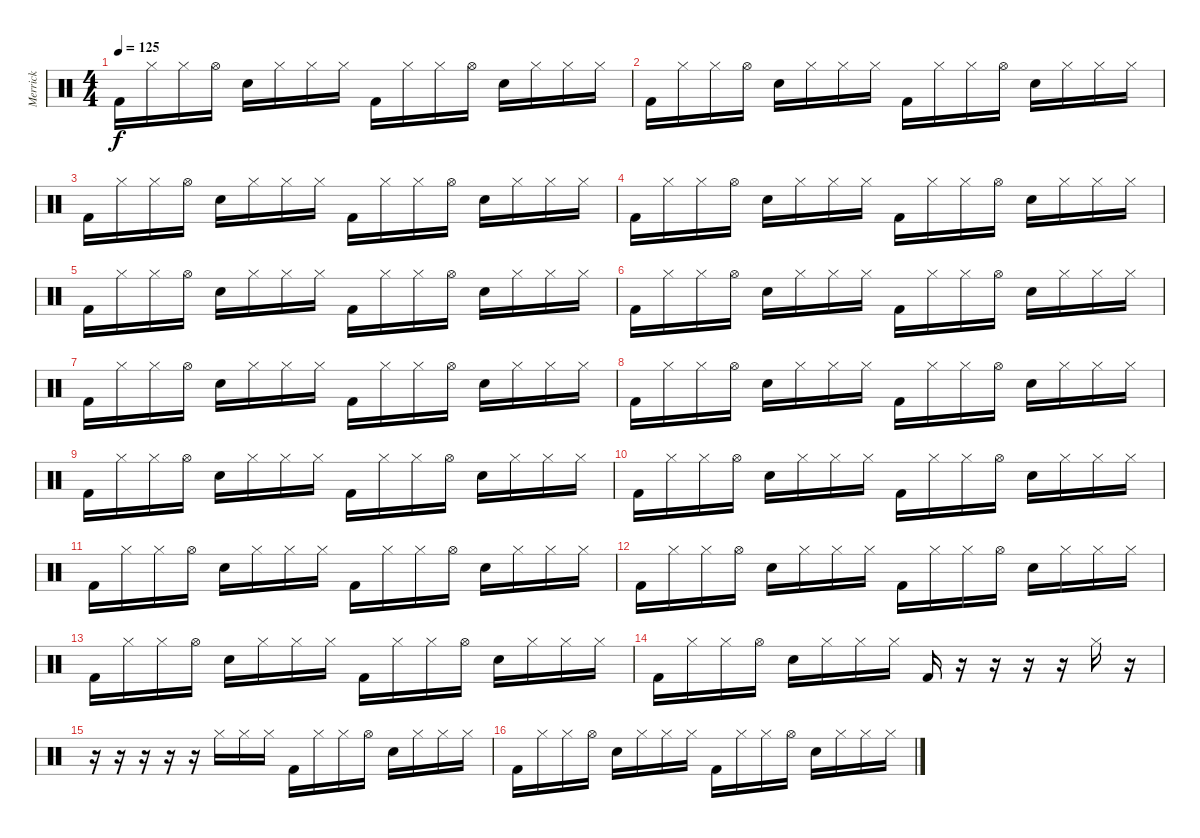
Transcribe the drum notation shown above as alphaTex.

\track ("Merrick " "Merrick ") {instrument percussion}
\staff {score}
\articulation defaults
\ts (4 4)
\tempo 125
\clef neutral
\ks c "Kick (hit) 2".16{dy f} "Hi-Hat (closed)".16 "Hi-Hat (closed)".16 "Hi-Hat (open)".16 "Electric Snare (hit)".16 "Hi-Hat (closed)".16 "Hi-Hat (closed)".16 "Hi-Hat (closed)".16 "Kick (hit) 2".16 "Hi-Hat (closed)".16 "Hi-Hat (closed)".16 "Hi-Hat (open)".16 "Electric Snare (hit)".16 "Hi-Hat (closed)".16 "Hi-Hat (closed)".16 "Hi-Hat (closed)".16
|
"Kick (hit) 2".16 "Hi-Hat (closed)".16 "Hi-Hat (closed)".16 "Hi-Hat (open)".16 "Electric Snare (hit)".16 "Hi-Hat (closed)".16 "Hi-Hat (closed)".16 "Hi-Hat (closed)".16 "Kick (hit) 2".16 "Hi-Hat (closed)".16 "Hi-Hat (closed)".16 "Hi-Hat (open)".16 "Electric Snare (hit)".16 "Hi-Hat (closed)".16 "Hi-Hat (closed)".16 "Hi-Hat (closed)".16 |
"Kick (hit) 2".16 "Hi-Hat (closed)".16 "Hi-Hat (closed)".16 "Hi-Hat (open)".16 "Electric Snare (hit)".16 "Hi-Hat (closed)".16 "Hi-Hat (closed)".16 "Hi-Hat (closed)".16 "Kick (hit) 2".16 "Hi-Hat (closed)".16 "Hi-Hat (closed)".16 "Hi-Hat (open)".16 "Electric Snare (hit)".16 "Hi-Hat (closed)".16 "Hi-Hat (closed)".16 "Hi-Hat (closed)".16 |
"Kick (hit) 2".16 "Hi-Hat (closed)".16 "Hi-Hat (closed)".16 "Hi-Hat (open)".16 "Electric Snare (hit)".16 "Hi-Hat (closed)".16 "Hi-Hat (closed)".16 "Hi-Hat (closed)".16 "Kick (hit) 2".16 "Hi-Hat (closed)".16 "Hi-Hat (closed)".16 "Hi-Hat (open)".16 "Electric Snare (hit)".16 "Hi-Hat (closed)".16 "Hi-Hat (closed)".16 "Hi-Hat (closed)".16 |
"Kick (hit) 2".16 "Hi-Hat (closed)".16 "Hi-Hat (closed)".16 "Hi-Hat (open)".16 "Electric Snare (hit)".16 "Hi-Hat (closed)".16 "Hi-Hat (closed)".16 "Hi-Hat (closed)".16 "Kick (hit) 2".16 "Hi-Hat (closed)".16 "Hi-Hat (closed)".16 "Hi-Hat (open)".16 "Electric Snare (hit)".16 "Hi-Hat (closed)".16 "Hi-Hat (closed)".16 "Hi-Hat (closed)".16 |
"Kick (hit) 2".16 "Hi-Hat (closed)".16 "Hi-Hat (closed)".16 "Hi-Hat (open)".16 "Electric Snare (hit)".16 "Hi-Hat (closed)".16 "Hi-Hat (closed)".16 "Hi-Hat (closed)".16 "Kick (hit) 2".16 "Hi-Hat (closed)".16 "Hi-Hat (closed)".16 "Hi-Hat (open)".16 "Electric Snare (hit)".16 "Hi-Hat (closed)".16 "Hi-Hat (closed)".16 "Hi-Hat (closed)".16 |
"Kick (hit) 2".16 "Hi-Hat (closed)".16 "Hi-Hat (closed)".16 "Hi-Hat (open)".16 "Electric Snare (hit)".16 "Hi-Hat (closed)".16 "Hi-Hat (closed)".16 "Hi-Hat (closed)".16 "Kick (hit) 2".16 "Hi-Hat (closed)".16 "Hi-Hat (closed)".16 "Hi-Hat (open)".16 "Electric Snare (hit)".16 "Hi-Hat (closed)".16 "Hi-Hat (closed)".16 "Hi-Hat (closed)".16 |
"Kick (hit) 2".16 "Hi-Hat (closed)".16 "Hi-Hat (closed)".16 "Hi-Hat (open)".16 "Electric Snare (hit)".16 "Hi-Hat (closed)".16 "Hi-Hat (closed)".16 "Hi-Hat (closed)".16 "Kick (hit) 2".16 "Hi-Hat (closed)".16 "Hi-Hat (closed)".16 "Hi-Hat (open)".16 "Electric Snare (hit)".16 "Hi-Hat (closed)".16 "Hi-Hat (closed)".16 "Hi-Hat (closed)".16 |
"Kick (hit) 2".16 "Hi-Hat (closed)".16 "Hi-Hat (closed)".16 "Hi-Hat (open)".16 "Electric Snare (hit)".16 "Hi-Hat (closed)".16 "Hi-Hat (closed)".16 "Hi-Hat (closed)".16 "Kick (hit) 2".16 "Hi-Hat (closed)".16 "Hi-Hat (closed)".16 "Hi-Hat (open)".16 "Electric Snare (hit)".16 "Hi-Hat (closed)".16 "Hi-Hat (closed)".16 "Hi-Hat (closed)".16 |
"Kick (hit) 2".16 "Hi-Hat (closed)".16 "Hi-Hat (closed)".16 "Hi-Hat (open)".16 "Electric Snare (hit)".16 "Hi-Hat (closed)".16 "Hi-Hat (closed)".16 "Hi-Hat (closed)".16 "Kick (hit) 2".16 "Hi-Hat (closed)".16 "Hi-Hat (closed)".16 "Hi-Hat (open)".16 "Electric Snare (hit)".16 "Hi-Hat (closed)".16 "Hi-Hat (closed)".16 "Hi-Hat (closed)".16 |
"Kick (hit) 2".16 "Hi-Hat (closed)".16 "Hi-Hat (closed)".16 "Hi-Hat (open)".16 "Electric Snare (hit)".16 "Hi-Hat (closed)".16 "Hi-Hat (closed)".16 "Hi-Hat (closed)".16 "Kick (hit) 2".16 "Hi-Hat (closed)".16 "Hi-Hat (closed)".16 "Hi-Hat (open)".16 "Electric Snare (hit)".16 "Hi-Hat (closed)".16 "Hi-Hat (closed)".16 "Hi-Hat (closed)".16 |
"Kick (hit) 2".16 "Hi-Hat (closed)".16 "Hi-Hat (closed)".16 "Hi-Hat (open)".16 "Electric Snare (hit)".16 "Hi-Hat (closed)".16 "Hi-Hat (closed)".16 "Hi-Hat (closed)".16 "Kick (hit) 2".16 "Hi-Hat (closed)".16 "Hi-Hat (closed)".16 "Hi-Hat (open)".16 "Electric Snare (hit)".16 "Hi-Hat (closed)".16 "Hi-Hat (closed)".16 "Hi-Hat (closed)".16 |
"Kick (hit) 2".16 "Hi-Hat (closed)".16 "Hi-Hat (closed)".16 "Hi-Hat (open)".16 "Electric Snare (hit)".16 "Hi-Hat (closed)".16 "Hi-Hat (closed)".16 "Hi-Hat (closed)".16 "Kick (hit) 2".16 "Hi-Hat (closed)".16 "Hi-Hat (closed)".16 "Hi-Hat (open)".16 "Electric Snare (hit)".16 "Hi-Hat (closed)".16 "Hi-Hat (closed)".16 "Hi-Hat (closed)".16 |
"Kick (hit) 2".16 "Hi-Hat (closed)".16 "Hi-Hat (closed)".16 "Hi-Hat (open)".16 "Electric Snare (hit)".16 "Hi-Hat (closed)".16 "Hi-Hat (closed)".16 "Hi-Hat (closed)".16 "Kick (hit) 2".16 r.16 r.16 r.16 r.16 "Hi-Hat (closed)".16 r.16 |
r.16 r.16 r.16 r.16 r.16 "Hi-Hat (closed)".16 "Hi-Hat (closed)".16 "Hi-Hat (closed)".16 "Kick (hit) 2".16 "Hi-Hat (closed)".16 "Hi-Hat (closed)".16 "Hi-Hat (open)".16 "Electric Snare (hit)".16 "Hi-Hat (closed)".16 "Hi-Hat (closed)".16 "Hi-Hat (closed)".16 |
"Kick (hit) 2".16 "Hi-Hat (closed)".16 "Hi-Hat (closed)".16 "Hi-Hat (open)".16 "Electric Snare (hit)".16 "Hi-Hat (closed)".16 "Hi-Hat (closed)".16 "Hi-Hat (closed)".16 "Kick (hit) 2".16 "Hi-Hat (closed)".16 "Hi-Hat (closed)".16 "Hi-Hat (open)".16 "Electric Snare (hit)".16 "Hi-Hat (closed)".16 "Hi-Hat (closed)".16 "Hi-Hat (closed)".16
